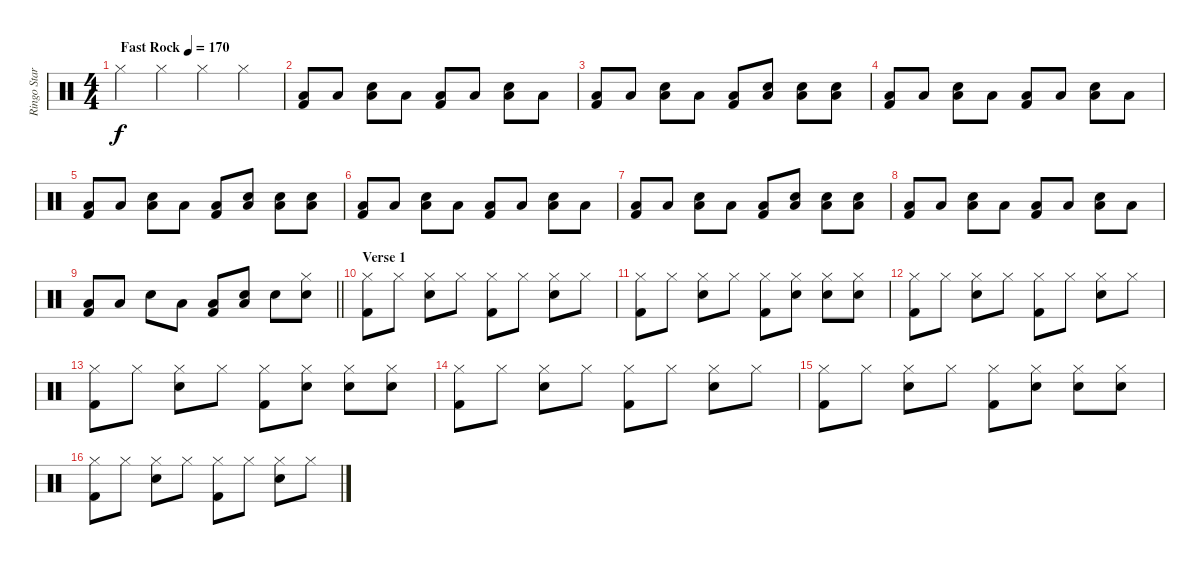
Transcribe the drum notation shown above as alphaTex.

\track ("Ringo Star (Thomas)" "Ringo Star") {instrument percussion}
\staff {score}
\articulation defaults
\ts (4 4)
\tempo (170 "Fast Rock")
\clef neutral
\ks c "Hi-Hat (closed)".4{dy f} "Hi-Hat (closed)".4 "Hi-Hat (closed)".4 "Hi-Hat (closed)".4
|
("Low Tom (hit)" "Kick (hit) 2").8 "Low Tom (hit)".8 ("Low Tom (hit)" "Snare (hit) 2").8 "Low Tom (hit)".8 ("Low Tom (hit)" "Kick (hit) 2").8 "Low Tom (hit)".8 ("Low Tom (hit)" "Snare (hit) 2").8 "Low Tom (hit)".8 |
("Low Tom (hit)" "Kick (hit) 2").8 "Low Tom (hit)".8 ("Low Tom (hit)" "Snare (hit) 2").8 "Low Tom (hit)".8 ("Low Tom (hit)" "Kick (hit) 2").8 ("Low Tom (hit)" "Snare (hit) 2").8 ("Low Tom (hit)" "Snare (hit) 2").8 ("Low Tom (hit)" "Snare (hit) 2").8 |
("Low Tom (hit)" "Kick (hit) 2").8 "Low Tom (hit)".8 ("Low Tom (hit)" "Snare (hit) 2").8 "Low Tom (hit)".8 ("Low Tom (hit)" "Kick (hit) 2").8 "Low Tom (hit)".8 ("Low Tom (hit)" "Snare (hit) 2").8 "Low Tom (hit)".8 |
("Low Tom (hit)" "Kick (hit) 2").8 "Low Tom (hit)".8 ("Low Tom (hit)" "Snare (hit) 2").8 "Low Tom (hit)".8 ("Low Tom (hit)" "Kick (hit) 2").8 ("Low Tom (hit)" "Snare (hit) 2").8 ("Low Tom (hit)" "Snare (hit) 2").8 ("Low Tom (hit)" "Snare (hit) 2").8 |
("Low Tom (hit)" "Kick (hit) 2").8 "Low Tom (hit)".8 ("Low Tom (hit)" "Snare (hit) 2").8 "Low Tom (hit)".8 ("Low Tom (hit)" "Kick (hit) 2").8 "Low Tom (hit)".8 ("Low Tom (hit)" "Snare (hit) 2").8 "Low Tom (hit)".8 |
("Low Tom (hit)" "Kick (hit) 2").8 "Low Tom (hit)".8 ("Low Tom (hit)" "Snare (hit) 2").8 "Low Tom (hit)".8 ("Low Tom (hit)" "Kick (hit) 2").8 ("Low Tom (hit)" "Snare (hit) 2").8 ("Low Tom (hit)" "Snare (hit) 2").8 ("Low Tom (hit)" "Snare (hit) 2").8 |
("Low Tom (hit)" "Kick (hit) 2").8 "Low Tom (hit)".8 ("Low Tom (hit)" "Snare (hit) 2").8 "Low Tom (hit)".8 ("Low Tom (hit)" "Kick (hit) 2").8 "Low Tom (hit)".8 ("Low Tom (hit)" "Snare (hit) 2").8 "Low Tom (hit)".8 |
\barLineRight lightlight
("Low Tom (hit)" "Kick (hit) 2").8 "Low Tom (hit)".8 "Snare (hit) 2".8 "Low Tom (hit)".8 ("Low Tom (hit)" "Kick (hit) 2").8 ("Low Tom (hit)" "Snare (hit) 2").8 "Snare (hit) 2".8 ("Hi-Hat (closed)" "Snare (hit) 2").8 |
\section ("" "Verse 1")
("Hi-Hat (closed)" "Kick (hit) 2").8 "Hi-Hat (closed)".8 ("Hi-Hat (closed)" "Snare (hit) 2").8 "Hi-Hat (closed)".8 ("Hi-Hat (closed)" "Kick (hit) 2").8 "Hi-Hat (closed)".8 ("Hi-Hat (closed)" "Snare (hit) 2").8 "Hi-Hat (closed)".8 |
("Hi-Hat (closed)" "Kick (hit) 2").8 "Hi-Hat (closed)".8 ("Hi-Hat (closed)" "Snare (hit) 2").8 "Hi-Hat (closed)".8 ("Hi-Hat (closed)" "Kick (hit) 2").8 ("Hi-Hat (closed)" "Snare (hit) 2").8 ("Hi-Hat (closed)" "Snare (hit) 2").8 ("Hi-Hat (closed)" "Snare (hit) 2").8 |
("Hi-Hat (closed)" "Kick (hit) 2").8 "Hi-Hat (closed)".8 ("Hi-Hat (closed)" "Snare (hit) 2").8 "Hi-Hat (closed)".8 ("Hi-Hat (closed)" "Kick (hit) 2").8 "Hi-Hat (closed)".8 ("Hi-Hat (closed)" "Snare (hit) 2").8 "Hi-Hat (closed)".8 |
("Hi-Hat (closed)" "Kick (hit) 2").8 "Hi-Hat (closed)".8 ("Hi-Hat (closed)" "Snare (hit) 2").8 "Hi-Hat (closed)".8 ("Hi-Hat (closed)" "Kick (hit) 2").8 ("Hi-Hat (closed)" "Snare (hit) 2").8 ("Hi-Hat (closed)" "Snare (hit) 2").8 ("Hi-Hat (closed)" "Snare (hit) 2").8 |
("Hi-Hat (closed)" "Kick (hit) 2").8 "Hi-Hat (closed)".8 ("Hi-Hat (closed)" "Snare (hit) 2").8 "Hi-Hat (closed)".8 ("Hi-Hat (closed)" "Kick (hit) 2").8 "Hi-Hat (closed)".8 ("Hi-Hat (closed)" "Snare (hit) 2").8 "Hi-Hat (closed)".8 |
("Hi-Hat (closed)" "Kick (hit) 2").8 "Hi-Hat (closed)".8 ("Hi-Hat (closed)" "Snare (hit) 2").8 "Hi-Hat (closed)".8 ("Hi-Hat (closed)" "Kick (hit) 2").8 ("Hi-Hat (closed)" "Snare (hit) 2").8 ("Hi-Hat (closed)" "Snare (hit) 2").8 ("Hi-Hat (closed)" "Snare (hit) 2").8 |
("Hi-Hat (closed)" "Kick (hit) 2").8 "Hi-Hat (closed)".8 ("Hi-Hat (closed)" "Snare (hit) 2").8 "Hi-Hat (closed)".8 ("Hi-Hat (closed)" "Kick (hit) 2").8 "Hi-Hat (closed)".8 ("Hi-Hat (closed)" "Snare (hit) 2").8 "Hi-Hat (closed)".8
